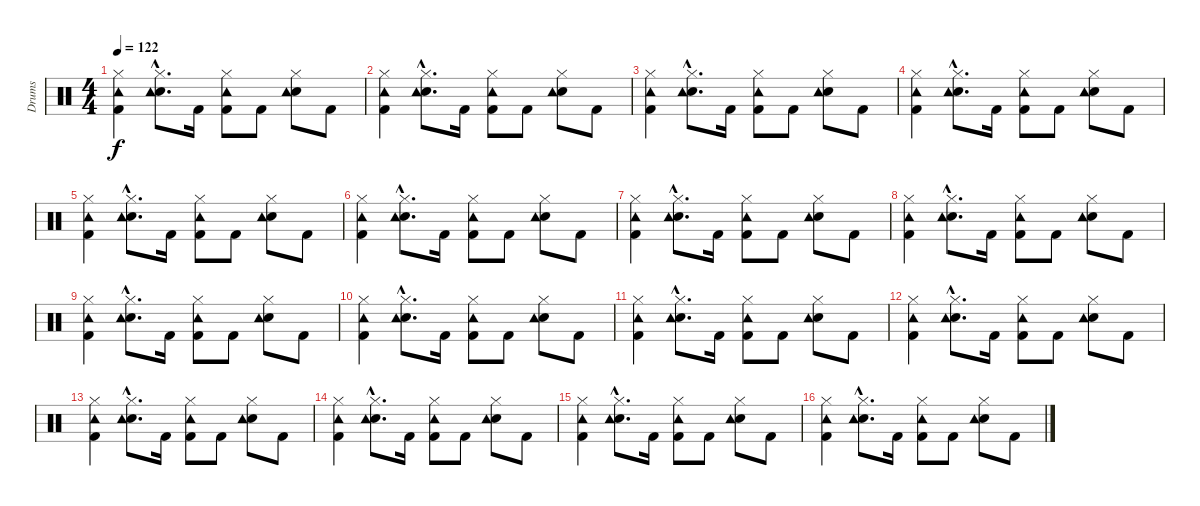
\track ("Drums" "Drums") {instrument percussion}
\staff {score}
\articulation defaults
\ts (4 4)
\tempo 122
\clef neutral
\ks c
("Hi-Hat (closed)" "Kick (hit) 2" "Tambourine (hit)").4{dy f} ("Hi-Hat (closed)"{hac} "Electric Snare (hit)"{hac} "Tambourine (hit)"{hac}).8{d} "Kick (hit) 2".16 ("Hi-Hat (closed)" "Kick (hit) 2" "Tambourine (hit)").8 "Kick (hit) 2".8 ("Hi-Hat (closed)" "Electric Snare (hit)" "Tambourine (hit)").8 "Kick (hit) 2".8 |
("Hi-Hat (closed)" "Kick (hit) 2" "Tambourine (hit)").4 ("Hi-Hat (closed)"{hac} "Electric Snare (hit)"{hac} "Tambourine (hit)"{hac}).8{d} "Kick (hit) 2".16 ("Hi-Hat (closed)" "Kick (hit) 2" "Tambourine (hit)").8 "Kick (hit) 2".8 ("Hi-Hat (closed)" "Electric Snare (hit)" "Tambourine (hit)").8 "Kick (hit) 2".8 |
("Hi-Hat (closed)" "Kick (hit) 2" "Tambourine (hit)").4 ("Hi-Hat (closed)"{hac} "Electric Snare (hit)"{hac} "Tambourine (hit)"{hac}).8{d} "Kick (hit) 2".16 ("Hi-Hat (closed)" "Kick (hit) 2" "Tambourine (hit)").8 "Kick (hit) 2".8 ("Hi-Hat (closed)" "Electric Snare (hit)" "Tambourine (hit)").8 "Kick (hit) 2".8 |
("Hi-Hat (closed)" "Kick (hit) 2" "Tambourine (hit)").4 ("Hi-Hat (closed)"{hac} "Electric Snare (hit)"{hac} "Tambourine (hit)"{hac}).8{d} "Kick (hit) 2".16 ("Hi-Hat (closed)" "Kick (hit) 2" "Tambourine (hit)").8 "Kick (hit) 2".8 ("Hi-Hat (closed)" "Electric Snare (hit)" "Tambourine (hit)").8 "Kick (hit) 2".8 |
("Hi-Hat (closed)" "Kick (hit) 2" "Tambourine (hit)").4 ("Hi-Hat (closed)"{hac} "Electric Snare (hit)"{hac} "Tambourine (hit)"{hac}).8{d} "Kick (hit) 2".16 ("Hi-Hat (closed)" "Kick (hit) 2" "Tambourine (hit)").8 "Kick (hit) 2".8 ("Hi-Hat (closed)" "Electric Snare (hit)" "Tambourine (hit)").8 "Kick (hit) 2".8 |
("Hi-Hat (closed)" "Kick (hit) 2" "Tambourine (hit)").4 ("Hi-Hat (closed)"{hac} "Electric Snare (hit)"{hac} "Tambourine (hit)"{hac}).8{d} "Kick (hit) 2".16 ("Hi-Hat (closed)" "Kick (hit) 2" "Tambourine (hit)").8 "Kick (hit) 2".8 ("Hi-Hat (closed)" "Electric Snare (hit)" "Tambourine (hit)").8 "Kick (hit) 2".8 |
("Hi-Hat (closed)" "Kick (hit) 2" "Tambourine (hit)").4 ("Hi-Hat (closed)"{hac} "Electric Snare (hit)"{hac} "Tambourine (hit)"{hac}).8{d} "Kick (hit) 2".16 ("Hi-Hat (closed)" "Kick (hit) 2" "Tambourine (hit)").8 "Kick (hit) 2".8 ("Hi-Hat (closed)" "Electric Snare (hit)" "Tambourine (hit)").8 "Kick (hit) 2".8 |
("Hi-Hat (closed)" "Kick (hit) 2" "Tambourine (hit)").4 ("Hi-Hat (closed)"{hac} "Electric Snare (hit)"{hac} "Tambourine (hit)"{hac}).8{d} "Kick (hit) 2".16 ("Hi-Hat (closed)" "Kick (hit) 2" "Tambourine (hit)").8 "Kick (hit) 2".8 ("Hi-Hat (closed)" "Electric Snare (hit)" "Tambourine (hit)").8 "Kick (hit) 2".8 |
("Hi-Hat (closed)" "Kick (hit) 2" "Tambourine (hit)").4 ("Hi-Hat (closed)"{hac} "Electric Snare (hit)"{hac} "Tambourine (hit)"{hac}).8{d} "Kick (hit) 2".16 ("Hi-Hat (closed)" "Kick (hit) 2" "Tambourine (hit)").8 "Kick (hit) 2".8 ("Hi-Hat (closed)" "Electric Snare (hit)" "Tambourine (hit)").8 "Kick (hit) 2".8 |
("Hi-Hat (closed)" "Kick (hit) 2" "Tambourine (hit)").4 ("Hi-Hat (closed)"{hac} "Electric Snare (hit)"{hac} "Tambourine (hit)"{hac}).8{d} "Kick (hit) 2".16 ("Hi-Hat (closed)" "Kick (hit) 2" "Tambourine (hit)").8 "Kick (hit) 2".8 ("Hi-Hat (closed)" "Electric Snare (hit)" "Tambourine (hit)").8 "Kick (hit) 2".8 |
("Hi-Hat (closed)" "Kick (hit) 2" "Tambourine (hit)").4 ("Hi-Hat (closed)"{hac} "Electric Snare (hit)"{hac} "Tambourine (hit)"{hac}).8{d} "Kick (hit) 2".16 ("Hi-Hat (closed)" "Kick (hit) 2" "Tambourine (hit)").8 "Kick (hit) 2".8 ("Hi-Hat (closed)" "Electric Snare (hit)" "Tambourine (hit)").8 "Kick (hit) 2".8 |
("Hi-Hat (closed)" "Kick (hit) 2" "Tambourine (hit)").4 ("Hi-Hat (closed)"{hac} "Electric Snare (hit)"{hac} "Tambourine (hit)"{hac}).8{d} "Kick (hit) 2".16 ("Hi-Hat (closed)" "Kick (hit) 2" "Tambourine (hit)").8 "Kick (hit) 2".8 ("Hi-Hat (closed)" "Electric Snare (hit)" "Tambourine (hit)").8 "Kick (hit) 2".8 |
("Hi-Hat (closed)" "Kick (hit) 2" "Tambourine (hit)").4 ("Hi-Hat (closed)"{hac} "Electric Snare (hit)"{hac} "Tambourine (hit)"{hac}).8{d} "Kick (hit) 2".16 ("Hi-Hat (closed)" "Kick (hit) 2" "Tambourine (hit)").8 "Kick (hit) 2".8 ("Hi-Hat (closed)" "Electric Snare (hit)" "Tambourine (hit)").8 "Kick (hit) 2".8 |
("Hi-Hat (closed)" "Kick (hit) 2" "Tambourine (hit)").4 ("Hi-Hat (closed)"{hac} "Electric Snare (hit)"{hac} "Tambourine (hit)"{hac}).8{d} "Kick (hit) 2".16 ("Hi-Hat (closed)" "Kick (hit) 2" "Tambourine (hit)").8 "Kick (hit) 2".8 ("Hi-Hat (closed)" "Electric Snare (hit)" "Tambourine (hit)").8 "Kick (hit) 2".8 |
("Hi-Hat (closed)" "Kick (hit) 2" "Tambourine (hit)").4 ("Hi-Hat (closed)"{hac} "Electric Snare (hit)"{hac} "Tambourine (hit)"{hac}).8{d} "Kick (hit) 2".16 ("Hi-Hat (closed)" "Kick (hit) 2" "Tambourine (hit)").8 "Kick (hit) 2".8 ("Hi-Hat (closed)" "Electric Snare (hit)" "Tambourine (hit)").8 "Kick (hit) 2".8 |
("Hi-Hat (closed)" "Kick (hit) 2" "Tambourine (hit)").4 ("Hi-Hat (closed)"{hac} "Electric Snare (hit)"{hac} "Tambourine (hit)"{hac}).8{d} "Kick (hit) 2".16 ("Hi-Hat (closed)" "Kick (hit) 2" "Tambourine (hit)").8 "Kick (hit) 2".8 ("Hi-Hat (closed)" "Electric Snare (hit)" "Tambourine (hit)").8 "Kick (hit) 2".8
